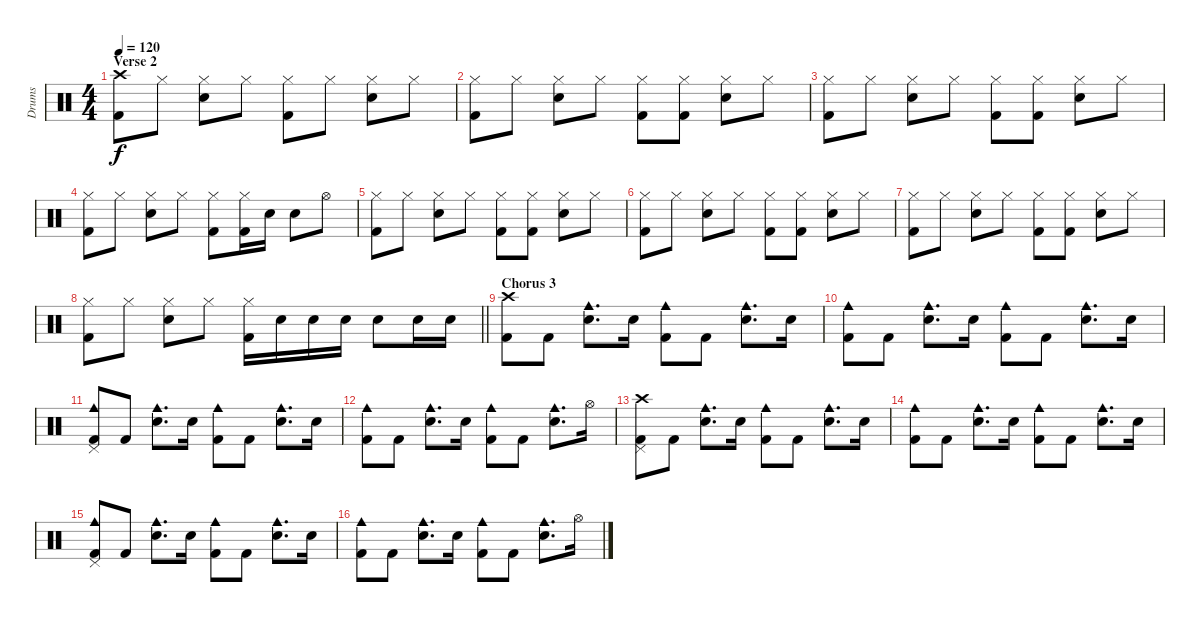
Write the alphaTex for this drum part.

\track ("Drums" "Drums") {instrument percussion}
\staff {score}
\articulation defaults
\ts (4 4)
\section ("" "Verse 2")
\tempo 120
\clef neutral
\ks c
("Crash high (hit)" "Kick (hit) 2").8{dy f} "Hi-Hat (closed)".8 ("Hi-Hat (closed)" "Electric Snare (hit)").8 "Hi-Hat (closed)".8 ("Hi-Hat (closed)" "Kick (hit) 2").8 "Hi-Hat (closed)".8 ("Hi-Hat (closed)" "Electric Snare (hit)").8 "Hi-Hat (closed)".8 |
("Hi-Hat (closed)" "Kick (hit) 2").8 "Hi-Hat (closed)".8 ("Hi-Hat (closed)" "Electric Snare (hit)").8 "Hi-Hat (closed)".8 ("Hi-Hat (closed)" "Kick (hit) 2").8 ("Hi-Hat (closed)" "Kick (hit) 2").8 ("Hi-Hat (closed)" "Electric Snare (hit)").8 "Hi-Hat (closed)".8 |
("Hi-Hat (closed)" "Kick (hit) 2").8 "Hi-Hat (closed)".8 ("Hi-Hat (closed)" "Electric Snare (hit)").8 "Hi-Hat (closed)".8 ("Hi-Hat (closed)" "Kick (hit) 2").8 ("Hi-Hat (closed)" "Kick (hit) 2").8 ("Hi-Hat (closed)" "Electric Snare (hit)").8 "Hi-Hat (closed)".8 |
("Hi-Hat (closed)" "Kick (hit) 2").8 "Hi-Hat (closed)".8 ("Hi-Hat (closed)" "Electric Snare (hit)").8 "Hi-Hat (closed)".8 ("Hi-Hat (closed)" "Kick (hit) 2").8 ("Hi-Hat (closed)" "Kick (hit) 2").16 "Electric Snare (hit)".16 "Electric Snare (hit)".8 "Hi-Hat (open)".8 |
("Hi-Hat (closed)" "Kick (hit) 2").8 "Hi-Hat (closed)".8 ("Hi-Hat (closed)" "Electric Snare (hit)").8 "Hi-Hat (closed)".8 ("Hi-Hat (closed)" "Kick (hit) 2").8 ("Hi-Hat (closed)" "Kick (hit) 2").8 ("Hi-Hat (closed)" "Electric Snare (hit)").8 "Hi-Hat (closed)".8 |
("Hi-Hat (closed)" "Kick (hit) 2").8 "Hi-Hat (closed)".8 ("Hi-Hat (closed)" "Electric Snare (hit)").8 "Hi-Hat (closed)".8 ("Hi-Hat (closed)" "Kick (hit) 2").8 ("Hi-Hat (closed)" "Kick (hit) 2").8 ("Hi-Hat (closed)" "Electric Snare (hit)").8 "Hi-Hat (closed)".8 |
("Hi-Hat (closed)" "Kick (hit) 2").8 "Hi-Hat (closed)".8 ("Hi-Hat (closed)" "Electric Snare (hit)").8 "Hi-Hat (closed)".8 ("Hi-Hat (closed)" "Kick (hit) 2").8 ("Hi-Hat (closed)" "Kick (hit) 2").8 ("Hi-Hat (closed)" "Electric Snare (hit)").8 "Hi-Hat (closed)".8 |
\barLineRight lightlight
("Hi-Hat (closed)" "Kick (hit) 2").8 "Hi-Hat (closed)".8 ("Hi-Hat (closed)" "Electric Snare (hit)").8 "Hi-Hat (closed)".8 ("Hi-Hat (closed)" "Kick (hit) 2").16 "Electric Snare (hit)".16 "Electric Snare (hit)".16 "Electric Snare (hit)".16 "Electric Snare (hit)".8 "Electric Snare (hit)".16 "Electric Snare (hit)".16 |
\section ("" "Chorus 3")
("Crash high (hit)" "Kick (hit) 2").8 "Kick (hit) 2".8 ("Cowbell medium (hit)" "Electric Snare (hit)").8{d} "Electric Snare (hit)".16 ("Cowbell medium (hit)" "Kick (hit) 2").8 "Kick (hit) 2".8 ("Cowbell medium (hit)" "Electric Snare (hit)").8{d} "Electric Snare (hit)".16 |
("Cowbell medium (hit)" "Kick (hit) 2").8 "Kick (hit) 2".8 ("Cowbell medium (hit)" "Electric Snare (hit)").8{d} "Electric Snare (hit)".16 ("Cowbell medium (hit)" "Kick (hit) 2").8 "Kick (hit) 2".8 ("Cowbell medium (hit)" "Electric Snare (hit)").8{d} "Electric Snare (hit)".16 |
("Cowbell medium (hit)" "Pedal Hi-Hat (hit)" "Kick (hit) 2").8 "Kick (hit) 2".8 ("Cowbell medium (hit)" "Electric Snare (hit)").8{d} "Electric Snare (hit)".16 ("Cowbell medium (hit)" "Kick (hit) 2").8 "Kick (hit) 2".8 ("Cowbell medium (hit)" "Electric Snare (hit)").8{d} "Electric Snare (hit)".16 |
("Cowbell medium (hit)" "Kick (hit) 2").8 "Kick (hit) 2".8 ("Cowbell medium (hit)" "Electric Snare (hit)").8{d} "Electric Snare (hit)".16 ("Cowbell medium (hit)" "Kick (hit) 2").8 "Kick (hit) 2".8 ("Cowbell medium (hit)" "Electric Snare (hit)").8{d} "Hi-Hat (open)".16 |
("Crash high (hit)" "Pedal Hi-Hat (hit)" "Kick (hit) 2").8 "Kick (hit) 2".8 ("Cowbell medium (hit)" "Electric Snare (hit)").8{d} "Electric Snare (hit)".16 ("Cowbell medium (hit)" "Kick (hit) 2").8 "Kick (hit) 2".8 ("Cowbell medium (hit)" "Electric Snare (hit)").8{d} "Electric Snare (hit)".16 |
("Cowbell medium (hit)" "Kick (hit) 2").8 "Kick (hit) 2".8 ("Cowbell medium (hit)" "Electric Snare (hit)").8{d} "Electric Snare (hit)".16 ("Cowbell medium (hit)" "Kick (hit) 2").8 "Kick (hit) 2".8 ("Cowbell medium (hit)" "Electric Snare (hit)").8{d} "Electric Snare (hit)".16 |
("Cowbell medium (hit)" "Pedal Hi-Hat (hit)" "Kick (hit) 2").8 "Kick (hit) 2".8 ("Cowbell medium (hit)" "Electric Snare (hit)").8{d} "Electric Snare (hit)".16 ("Cowbell medium (hit)" "Kick (hit) 2").8 "Kick (hit) 2".8 ("Cowbell medium (hit)" "Electric Snare (hit)").8{d} "Electric Snare (hit)".16 |
("Cowbell medium (hit)" "Kick (hit) 2").8 "Kick (hit) 2".8 ("Cowbell medium (hit)" "Electric Snare (hit)").8{d} "Electric Snare (hit)".16 ("Cowbell medium (hit)" "Kick (hit) 2").8 "Kick (hit) 2".8 ("Cowbell medium (hit)" "Electric Snare (hit)").8{d} "Hi-Hat (open)".16
